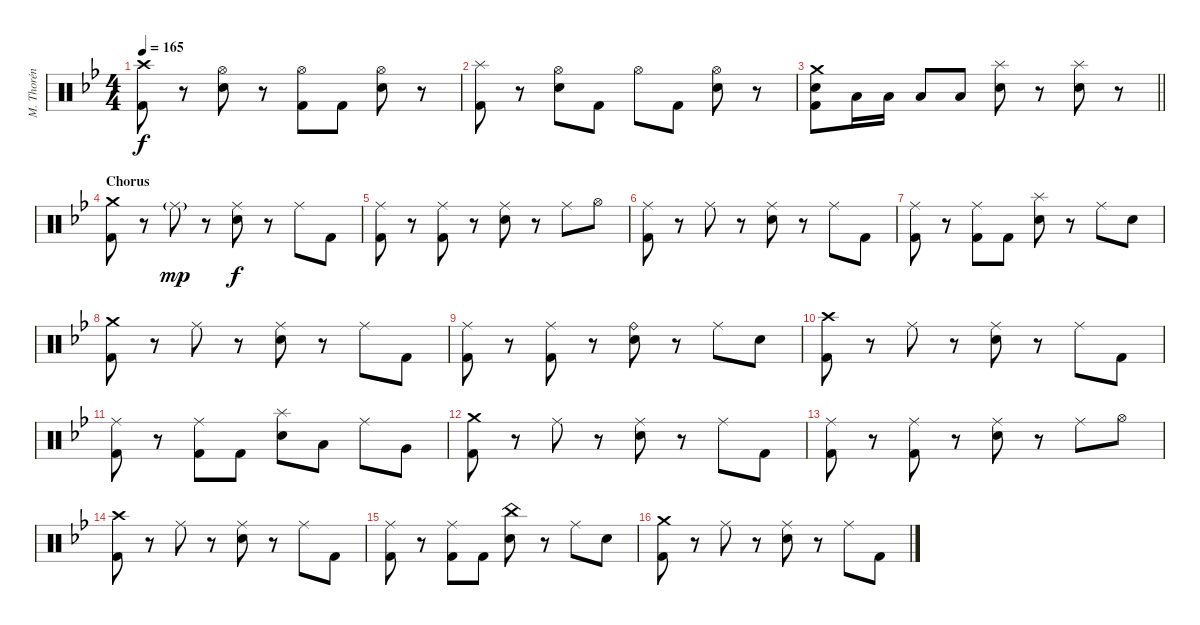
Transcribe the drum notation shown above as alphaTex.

\track ("M. Thorén (Drums)" "M. Thorén ") {instrument percussion}
\staff {score}
\articulation defaults
\ts (4 4)
\tempo 165
\clef neutral
\ks gminor
("Crash high (hit)" "Kick (hit) 2").8{dy f} r.8 ("Hi-Hat (open)" "Electric Snare (hit)").8 r.8 ("Hi-Hat (open)" "Kick (hit) 2").8 "Kick (hit) 2".8 ("Hi-Hat (open)" "Electric Snare (hit)").8 r.8 |
("Splash (hit)" "Kick (hit) 2").8 r.8 ("Hi-Hat (open)" "Electric Snare (hit)").8 "Kick (hit) 2".8 "Hi-Hat (open)".8 "Kick (hit) 2".8 ("Hi-Hat (open)" "Electric Snare (hit)").8 r.8 |
\barLineRight lightlight
("Crash medium (hit)" "Electric Snare (hit)" "Kick (hit) 2").8 "Low Tom (hit)".16 "Low Tom (hit)".16 "Low Tom (hit)".8 "Low Tom (hit)".8 ("Splash (hit)" "Electric Snare (hit)").8 r.8 ("Splash (hit)" "Electric Snare (hit)").8 r.8 |
\section ("" "Chorus")
("Crash medium (hit)" "Kick (hit) 2").8 r.8 "Ride (middle)"{g}.8{dy mp} r.8 ("Ride (middle)" "Electric Snare (hit)").8{dy f} r.8 "Ride (middle)".8 "Kick (hit) 2".8 |
("Ride (middle)" "Kick (hit) 2").8 r.8 ("Ride (middle)" "Kick (hit) 2").8 r.8 ("Ride (middle)" "Electric Snare (hit)").8 r.8 "Ride (middle)".8 "Hi-Hat (open)".8 |
("Ride (middle)" "Kick (hit) 2").8 r.8 "Ride (middle)".8 r.8 ("Ride (middle)" "Electric Snare (hit)").8 r.8 "Ride (middle)".8 "Kick (hit) 2".8 |
("Ride (middle)" "Kick (hit) 2").8 r.8 ("Ride (middle)" "Kick (hit) 2").8 "Kick (hit) 2".8 ("Splash (hit)" "Electric Snare (hit)").8 r.8 "Ride (middle)".8 "Electric Snare (hit)".8 |
("Crash medium (hit)" "Kick (hit) 2").8 r.8 "Ride (middle)".8 r.8 ("Ride (middle)" "Electric Snare (hit)").8 r.8 "Ride (middle)".8 "Kick (hit) 2".8 |
("Ride (middle)" "Kick (hit) 2").8 r.8 ("Ride (middle)" "Kick (hit) 2").8 r.8 ("Ride (bell)" "Electric Snare (hit)").8 r.8 "Ride (middle)".8 "Electric Snare (hit)".8 |
("Crash high (hit)" "Kick (hit) 2").8 r.8 "Ride (middle)".8 r.8 ("Ride (middle)" "Electric Snare (hit)").8 r.8 "Ride (middle)".8 "Kick (hit) 2".8 |
("Ride (middle)" "Kick (hit) 2").8 r.8 ("Ride (middle)" "Kick (hit) 2").8 "Kick (hit) 2".8 ("Splash (hit)" "Electric Snare (hit)").8 "Low Tom (hit)".8 "Ride (middle)".8 "Very Low Tom (hit)".8 |
("Crash medium (hit)" "Kick (hit) 2").8 r.8 "Ride (middle)".8 r.8 ("Ride (middle)" "Electric Snare (hit)").8 r.8 "Ride (middle)".8 "Kick (hit) 2".8 |
("Ride (middle)" "Kick (hit) 2").8 r.8 ("Ride (middle)" "Kick (hit) 2").8 r.8 ("Ride (middle)" "Electric Snare (hit)").8 r.8 "Ride (middle)".8 "Hi-Hat (open)".8 |
("Crash high (hit)" "Kick (hit) 2").8 r.8 "Ride (middle)".8 r.8 ("Ride (middle)" "Electric Snare (hit)").8 r.8 "Ride (middle)".8 "Kick (hit) 2".8 |
("Ride (middle)" "Kick (hit) 2").8 r.8 ("Ride (middle)" "Kick (hit) 2").8 "Kick (hit) 2".8 ("China (hit)" "Electric Snare (hit)").8 r.8 "Ride (middle)".8 "Electric Snare (hit)".8 |
("Crash medium (hit)" "Kick (hit) 2").8 r.8 "Ride (middle)".8 r.8 ("Ride (middle)" "Electric Snare (hit)").8 r.8 "Ride (middle)".8 "Kick (hit) 2".8
